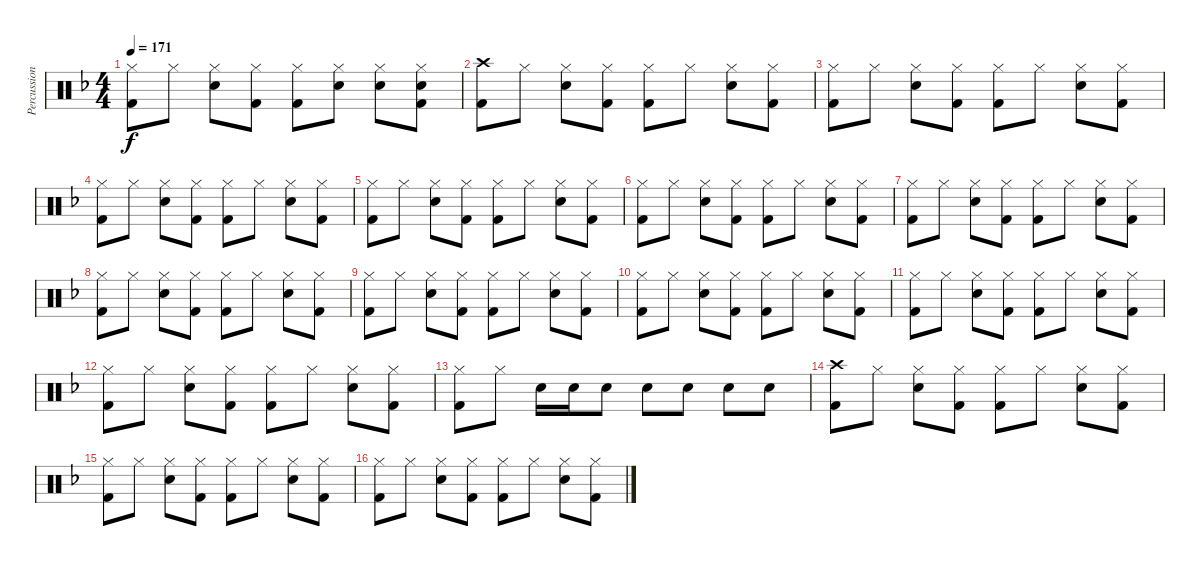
\track ("Percussion" "Percussion") {instrument percussion}
\staff {score}
\articulation defaults
\ts (4 4)
\tempo 171
\clef neutral
\ks f
("Hi-Hat (closed)" "Kick (hit) 2").8{dy f} "Hi-Hat (closed)".8 ("Hi-Hat (closed)" "Snare (hit) 2").8 ("Hi-Hat (closed)" "Kick (hit) 2").8 ("Hi-Hat (closed)" "Kick (hit) 2").8 ("Hi-Hat (closed)" "Snare (hit) 2").8 ("Hi-Hat (closed)" "Snare (hit) 2").8 ("Hi-Hat (closed)" "Snare (hit) 2" "Kick (hit) 2").8 |
("Crash high (hit)" "Kick (hit) 2").8 "Hi-Hat (closed)".8 ("Hi-Hat (closed)" "Snare (hit) 2").8 ("Hi-Hat (closed)" "Kick (hit) 2").8 ("Hi-Hat (closed)" "Kick (hit) 2").8 "Hi-Hat (closed)".8 ("Hi-Hat (closed)" "Snare (hit) 2").8 ("Hi-Hat (closed)" "Kick (hit) 2").8 |
("Hi-Hat (closed)" "Kick (hit) 2").8 "Hi-Hat (closed)".8 ("Hi-Hat (closed)" "Snare (hit) 2").8 ("Hi-Hat (closed)" "Kick (hit) 2").8 ("Hi-Hat (closed)" "Kick (hit) 2").8 "Hi-Hat (closed)".8 ("Hi-Hat (closed)" "Snare (hit) 2").8 ("Hi-Hat (closed)" "Kick (hit) 2").8 |
("Hi-Hat (closed)" "Kick (hit) 2").8 "Hi-Hat (closed)".8 ("Hi-Hat (closed)" "Snare (hit) 2").8 ("Hi-Hat (closed)" "Kick (hit) 2").8 ("Hi-Hat (closed)" "Kick (hit) 2").8 "Hi-Hat (closed)".8 ("Hi-Hat (closed)" "Snare (hit) 2").8 ("Hi-Hat (closed)" "Kick (hit) 2").8 |
("Hi-Hat (closed)" "Kick (hit) 2").8 "Hi-Hat (closed)".8 ("Hi-Hat (closed)" "Snare (hit) 2").8 ("Hi-Hat (closed)" "Kick (hit) 2").8 ("Hi-Hat (closed)" "Kick (hit) 2").8 "Hi-Hat (closed)".8 ("Hi-Hat (closed)" "Snare (hit) 2").8 ("Hi-Hat (closed)" "Kick (hit) 2").8 |
("Hi-Hat (closed)" "Kick (hit) 2").8 "Hi-Hat (closed)".8 ("Hi-Hat (closed)" "Snare (hit) 2").8 ("Hi-Hat (closed)" "Kick (hit) 2").8 ("Hi-Hat (closed)" "Kick (hit) 2").8 "Hi-Hat (closed)".8 ("Hi-Hat (closed)" "Snare (hit) 2").8 ("Hi-Hat (closed)" "Kick (hit) 2").8 |
("Hi-Hat (closed)" "Kick (hit) 2").8 "Hi-Hat (closed)".8 ("Hi-Hat (closed)" "Snare (hit) 2").8 ("Hi-Hat (closed)" "Kick (hit) 2").8 ("Hi-Hat (closed)" "Kick (hit) 2").8 "Hi-Hat (closed)".8 ("Hi-Hat (closed)" "Snare (hit) 2").8 ("Hi-Hat (closed)" "Kick (hit) 2").8 |
("Hi-Hat (closed)" "Kick (hit) 2").8 "Hi-Hat (closed)".8 ("Hi-Hat (closed)" "Snare (hit) 2").8 ("Hi-Hat (closed)" "Kick (hit) 2").8 ("Hi-Hat (closed)" "Kick (hit) 2").8 "Hi-Hat (closed)".8 ("Hi-Hat (closed)" "Snare (hit) 2").8 ("Hi-Hat (closed)" "Kick (hit) 2").8 |
("Hi-Hat (closed)" "Kick (hit) 2").8 "Hi-Hat (closed)".8 ("Hi-Hat (closed)" "Snare (hit) 2").8 ("Hi-Hat (closed)" "Kick (hit) 2").8 ("Hi-Hat (closed)" "Kick (hit) 2").8 "Hi-Hat (closed)".8 ("Hi-Hat (closed)" "Snare (hit) 2").8 ("Hi-Hat (closed)" "Kick (hit) 2").8 |
("Hi-Hat (closed)" "Kick (hit) 2").8 "Hi-Hat (closed)".8 ("Hi-Hat (closed)" "Snare (hit) 2").8 ("Hi-Hat (closed)" "Kick (hit) 2").8 ("Hi-Hat (closed)" "Kick (hit) 2").8 "Hi-Hat (closed)".8 ("Hi-Hat (closed)" "Snare (hit) 2").8 ("Hi-Hat (closed)" "Kick (hit) 2").8 |
("Hi-Hat (closed)" "Kick (hit) 2").8 "Hi-Hat (closed)".8 ("Hi-Hat (closed)" "Snare (hit) 2").8 ("Hi-Hat (closed)" "Kick (hit) 2").8 ("Hi-Hat (closed)" "Kick (hit) 2").8 "Hi-Hat (closed)".8 ("Hi-Hat (closed)" "Snare (hit) 2").8 ("Hi-Hat (closed)" "Kick (hit) 2").8 |
("Hi-Hat (closed)" "Kick (hit) 2").8 "Hi-Hat (closed)".8 ("Hi-Hat (closed)" "Snare (hit) 2").8 ("Hi-Hat (closed)" "Kick (hit) 2").8 ("Hi-Hat (closed)" "Kick (hit) 2").8 "Hi-Hat (closed)".8 ("Hi-Hat (closed)" "Snare (hit) 2").8 ("Hi-Hat (closed)" "Kick (hit) 2").8 |
("Hi-Hat (closed)" "Kick (hit) 2").8 "Hi-Hat (closed)".8 "Snare (hit) 2".16 "Snare (hit) 2".16 "Snare (hit) 2".8 "Snare (hit) 2".8 "Snare (hit) 2".8 "Snare (hit) 2".8 "Snare (hit) 2".8 |
("Crash high (hit)" "Kick (hit) 2").8 "Hi-Hat (closed)".8 ("Hi-Hat (closed)" "Snare (hit) 2").8 ("Hi-Hat (closed)" "Kick (hit) 2").8 ("Hi-Hat (closed)" "Kick (hit) 2").8 "Hi-Hat (closed)".8 ("Hi-Hat (closed)" "Snare (hit) 2").8 ("Hi-Hat (closed)" "Kick (hit) 2").8 |
("Hi-Hat (closed)" "Kick (hit) 2").8 "Hi-Hat (closed)".8 ("Hi-Hat (closed)" "Snare (hit) 2").8 ("Hi-Hat (closed)" "Kick (hit) 2").8 ("Hi-Hat (closed)" "Kick (hit) 2").8 "Hi-Hat (closed)".8 ("Hi-Hat (closed)" "Snare (hit) 2").8 ("Hi-Hat (closed)" "Kick (hit) 2").8 |
("Hi-Hat (closed)" "Kick (hit) 2").8 "Hi-Hat (closed)".8 ("Hi-Hat (closed)" "Snare (hit) 2").8 ("Hi-Hat (closed)" "Kick (hit) 2").8 ("Hi-Hat (closed)" "Kick (hit) 2").8 "Hi-Hat (closed)".8 ("Hi-Hat (closed)" "Snare (hit) 2").8 ("Hi-Hat (closed)" "Kick (hit) 2").8
